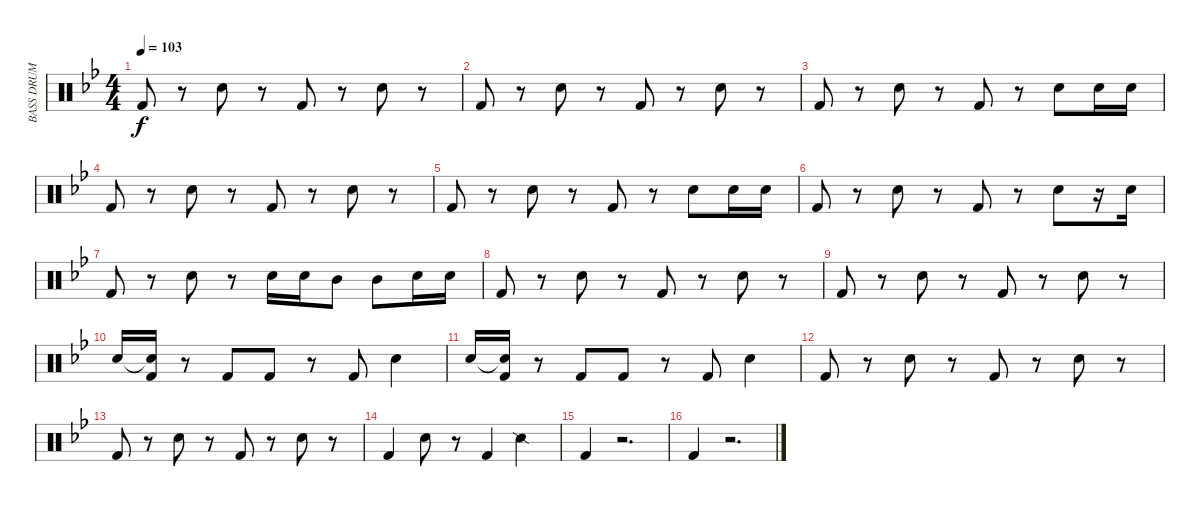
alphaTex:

\track ("BASS DRUM / SNARE / TOMS" "BASS DRUM ") {instrument percussion}
\staff {score}
\articulation defaults
\ts (4 4)
\tempo 103
\clef neutral
\ks bb "Kick (hit) 2".8{dy f}
r.8 "Snare (hit) 2".8 r.8 "Kick (hit) 2".8 r.8 "Snare (hit) 2".8 r.8 |
"Kick (hit) 2".8 r.8 "Snare (hit) 2".8 r.8 "Kick (hit) 2".8 r.8 "Snare (hit) 2".8 r.8 |
"Kick (hit) 2".8 r.8 "Snare (hit) 2".8 r.8 "Kick (hit) 2".8 r.8 "Snare (hit) 2".8 "Snare (hit) 2".16 "Snare (hit) 2".16 |
"Kick (hit) 2".8 r.8 "Snare (hit) 2".8 r.8 "Kick (hit) 2".8 r.8 "Snare (hit) 2".8 r.8 |
"Kick (hit) 2".8 r.8 "Snare (hit) 2".8 r.8 "Kick (hit) 2".8 r.8 "Snare (hit) 2".8 "Snare (hit) 2".16 "Snare (hit) 2".16 |
"Kick (hit) 2".8 r.8 "Snare (hit) 2".8 r.8 "Kick (hit) 2".8 r.8 "Snare (hit) 2".8 r.16 "Snare (hit) 2".16 |
"Kick (hit) 2".8 r.8 "Snare (hit) 2".8 r.8 "Snare (hit) 2".16 "Snare (hit) 2".16 "Mid Tom (hit)".8 "Mid Tom (hit)".8 "Snare (hit) 2".16 "Snare (hit) 2".16 |
"Kick (hit) 2".8 r.8 "Snare (hit) 2".8 r.8 "Kick (hit) 2".8 r.8 "Snare (hit) 2".8 r.8 |
"Kick (hit) 2".8 r.8 "Snare (hit) 2".8 r.8 "Kick (hit) 2".8 r.8 "Snare (hit) 2".8 r.8 |
"Snare (hit) 2".16 ("Snare (hit) 2"{t} "Kick (hit) 2").16 r.8 "Kick (hit) 2".8 "Kick (hit) 2".8 r.8 "Kick (hit) 2".8 "Snare (hit) 2".4 |
"Snare (hit) 2".16 ("Snare (hit) 2"{t} "Kick (hit) 2").16 r.8 "Kick (hit) 2".8 "Kick (hit) 2".8 r.8 "Kick (hit) 2".8 "Snare (hit) 2".4 |
"Kick (hit) 2".8 r.8 "Snare (hit) 2".8 r.8 "Kick (hit) 2".8 r.8 "Snare (hit) 2".8 r.8 |
"Kick (hit) 2".8 r.8 "Snare (hit) 2".8 r.8 "Kick (hit) 2".8 r.8 "Snare (hit) 2".8 r.8 |
"Kick (hit) 2".4 "Snare (hit) 2".8 r.8 "Kick (hit) 2".4 "Snare (side stick) 2".4 |
"Kick (hit) 2".4 r.2{d} |
"Kick (hit) 2".4 r.2{d}
